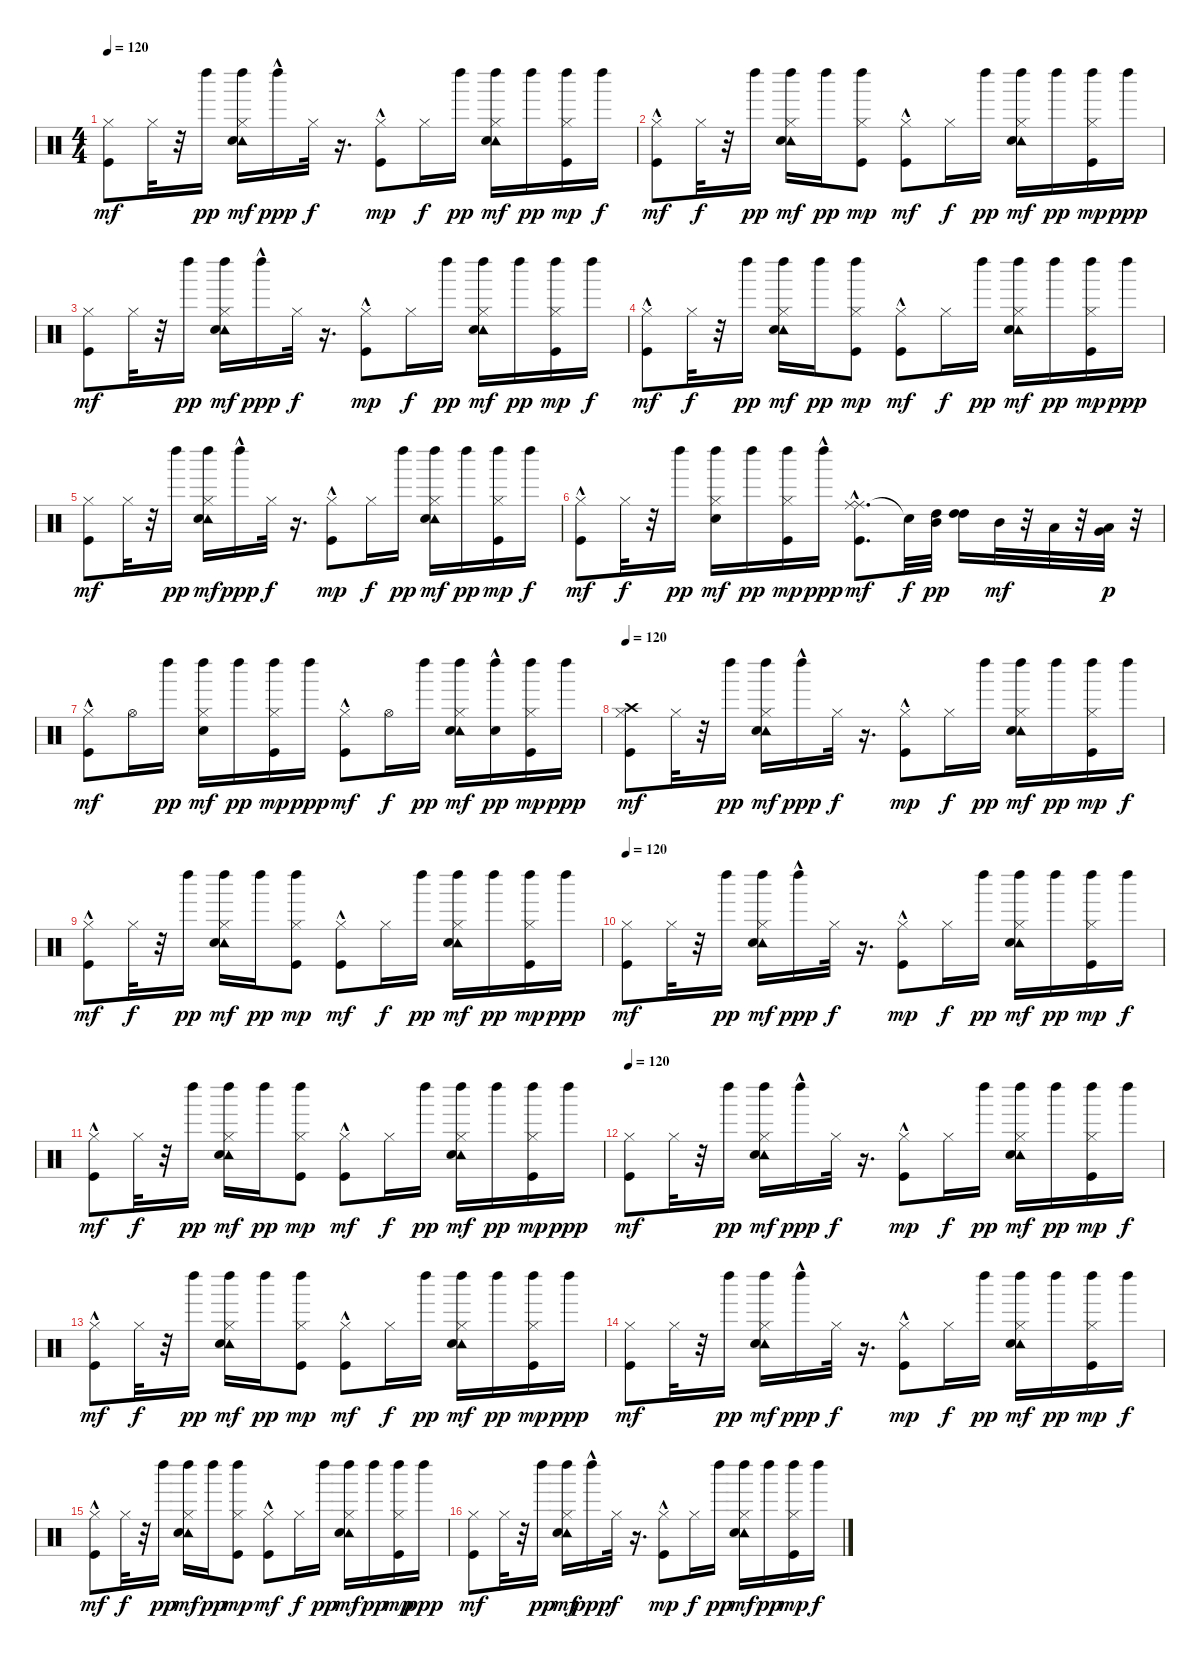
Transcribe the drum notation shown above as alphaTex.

\track "" {instrument percussion}
\staff {score}
\articulation defaults
\ts (4 4)
\tempo 120
\clef neutral
\ks c
("Kick (hit)" "Hi-Hat (closed)").8{dy mf} "Hi-Hat (closed)".32 r.32 "Left Maraca (hit)".16{dy pp} ("Left Maraca (hit)" "Tambourine (hit)" "Electric Snare (hit)" "Hi-Hat (closed)").16{dy mf} "Left Maraca (hit)"{hac}.16{dy ppp} "Hi-Hat (closed)".32{dy f} r.16{d} ("Hi-Hat (closed)" "Kick (hit)"{hac}).8{dy mp} "Hi-Hat (closed)".16{dy f} "Left Maraca (hit)".16{dy pp} ("Left Maraca (hit)" "Tambourine (hit)" "Electric Snare (hit)" "Hi-Hat (closed)").16{dy mf} "Left Maraca (hit)".16{dy pp} ("Left Maraca (hit)" "Kick (hit)" "Hi-Hat (closed)").16{dy mp} "Left Maraca (hit)".16{dy f} |
("Kick (hit)"{hac} "Hi-Hat (closed)").8{dy mf} "Hi-Hat (closed)".32{dy f} r.32 "Left Maraca (hit)".16{dy pp} ("Left Maraca (hit)" "Tambourine (hit)" "Hi-Hat (closed)" "Electric Snare (hit)").16{dy mf} "Left Maraca (hit)".16{dy pp} ("Left Maraca (hit)" "Hi-Hat (closed)" "Kick (hit)").8{dy mp} ("Kick (hit)"{hac} "Hi-Hat (closed)").8{dy mf} "Hi-Hat (closed)".16{dy f} "Left Maraca (hit)".16{dy pp} ("Left Maraca (hit)" "Tambourine (hit)" "Electric Snare (hit)" "Hi-Hat (closed)").16{dy mf} "Left Maraca (hit)".16{dy pp} ("Left Maraca (hit)" "Kick (hit)" "Hi-Hat (closed)").16{dy mp} "Left Maraca (hit)".16{dy ppp} |
("Kick (hit)" "Hi-Hat (closed)").8{dy mf} "Hi-Hat (closed)".32 r.32 "Left Maraca (hit)".16{dy pp} ("Left Maraca (hit)" "Tambourine (hit)" "Electric Snare (hit)" "Hi-Hat (closed)").16{dy mf} "Left Maraca (hit)"{hac}.16{dy ppp} "Hi-Hat (closed)".32{dy f} r.16{d} ("Hi-Hat (closed)" "Kick (hit)"{hac}).8{dy mp} "Hi-Hat (closed)".16{dy f} "Left Maraca (hit)".16{dy pp} ("Left Maraca (hit)" "Tambourine (hit)" "Electric Snare (hit)" "Hi-Hat (closed)").16{dy mf} "Left Maraca (hit)".16{dy pp} ("Left Maraca (hit)" "Kick (hit)" "Hi-Hat (closed)").16{dy mp} "Left Maraca (hit)".16{dy f} |
("Kick (hit)"{hac} "Hi-Hat (closed)").8{dy mf} "Hi-Hat (closed)".32{dy f} r.32 "Left Maraca (hit)".16{dy pp} ("Left Maraca (hit)" "Tambourine (hit)" "Hi-Hat (closed)" "Electric Snare (hit)").16{dy mf} "Left Maraca (hit)".16{dy pp} ("Left Maraca (hit)" "Hi-Hat (closed)" "Kick (hit)").8{dy mp} ("Kick (hit)"{hac} "Hi-Hat (closed)").8{dy mf} "Hi-Hat (closed)".16{dy f} "Left Maraca (hit)".16{dy pp} ("Left Maraca (hit)" "Tambourine (hit)" "Electric Snare (hit)" "Hi-Hat (closed)").16{dy mf} "Left Maraca (hit)".16{dy pp} ("Left Maraca (hit)" "Kick (hit)" "Hi-Hat (closed)").16{dy mp} "Left Maraca (hit)".16{dy ppp} |
("Kick (hit)" "Hi-Hat (closed)").8{dy mf} "Hi-Hat (closed)".32 r.32 "Left Maraca (hit)".16{dy pp} ("Left Maraca (hit)" "Tambourine (hit)" "Electric Snare (hit)" "Hi-Hat (closed)").16{dy mf} "Left Maraca (hit)"{hac}.16{dy ppp} "Hi-Hat (closed)".32{dy f} r.16{d} ("Hi-Hat (closed)" "Kick (hit)"{hac}).8{dy mp} "Hi-Hat (closed)".16{dy f} "Left Maraca (hit)".16{dy pp} ("Left Maraca (hit)" "Tambourine (hit)" "Electric Snare (hit)" "Hi-Hat (closed)").16{dy mf} "Left Maraca (hit)".16{dy pp} ("Left Maraca (hit)" "Kick (hit)" "Hi-Hat (closed)").16{dy mp} "Left Maraca (hit)".16{dy f} |
("Kick (hit)"{hac} "Hi-Hat (closed)").8{dy mf} "Hi-Hat (closed)".32{dy f} r.32 "Left Maraca (hit)".16{dy pp} ("Left Maraca (hit)" "Hi-Hat (closed)" "Electric Snare (hit)").16{dy mf} "Left Maraca (hit)".16{dy pp} ("Left Maraca (hit)" "Hi-Hat (closed)" "Kick (hit)").16{dy mp} "Left Maraca (hit)"{hac}.16{dy ppp} ("Ride (middle)" "Kick (hit)"{hac} "Ride (middle)").8{d dy mf} "Snare (hit)"{t}.32{dy f} ("High Tom (hit)" "Mid Tom (hit)").32{dy pp} ("High Tom (hit)" "High Tom (hit)").16 "Mid Tom (hit)".32{dy mf} r.32 "Low Tom (hit)".32 r.32 ("Low Tom (hit)" "Very Low Tom (hit)").32{dy p} r.32 |
("Kick (hit)"{hac} "Hi-Hat (closed)").8{dy mf} "Hi-Hat (open)".16 "Left Maraca (hit)".16{dy pp} ("Left Maraca (hit)" "Hi-Hat (closed)" "Electric Snare (hit)").16{dy mf} "Left Maraca (hit)".16{dy pp} ("Left Maraca (hit)" "Hi-Hat (closed)" "Kick (hit)").16{dy mp} "Left Maraca (hit)".16{dy ppp} ("Kick (hit)"{hac} "Hi-Hat (closed)").8{dy mf} "Hi-Hat (open)".16{dy f} "Left Maraca (hit)".16{dy pp} ("Left Maraca (hit)" "Tambourine (hit)" "Electric Snare (hit)" "Hi-Hat (closed)").16{dy mf} ("Electric Snare (hit)"{hac} "Left Maraca (hit)").16{dy pp} ("Left Maraca (hit)" "Kick (hit)" "Hi-Hat (closed)").16{dy mp} "Left Maraca (hit)".16{dy ppp} |
\tempo 120
("Crash high (hit)" "Kick (hit)" "Hi-Hat (closed)").8{dy mf} "Hi-Hat (closed)".32 r.32 "Left Maraca (hit)".16{dy pp} ("Left Maraca (hit)" "Tambourine (hit)" "Electric Snare (hit)" "Hi-Hat (closed)").16{dy mf} "Left Maraca (hit)"{hac}.16{dy ppp} "Hi-Hat (closed)".32{dy f} r.16{d} ("Hi-Hat (closed)" "Kick (hit)"{hac}).8{dy mp} "Hi-Hat (closed)".16{dy f} "Left Maraca (hit)".16{dy pp} ("Left Maraca (hit)" "Tambourine (hit)" "Electric Snare (hit)" "Hi-Hat (closed)").16{dy mf} "Left Maraca (hit)".16{dy pp} ("Left Maraca (hit)" "Kick (hit)" "Hi-Hat (closed)").16{dy mp} "Left Maraca (hit)".16{dy f} |
("Kick (hit)"{hac} "Hi-Hat (closed)").8{dy mf} "Hi-Hat (closed)".32{dy f} r.32 "Left Maraca (hit)".16{dy pp} ("Left Maraca (hit)" "Tambourine (hit)" "Hi-Hat (closed)" "Electric Snare (hit)").16{dy mf} "Left Maraca (hit)".16{dy pp} ("Left Maraca (hit)" "Hi-Hat (closed)" "Kick (hit)").8{dy mp} ("Kick (hit)"{hac} "Hi-Hat (closed)").8{dy mf} "Hi-Hat (closed)".16{dy f} "Left Maraca (hit)".16{dy pp} ("Left Maraca (hit)" "Tambourine (hit)" "Electric Snare (hit)" "Hi-Hat (closed)").16{dy mf} "Left Maraca (hit)".16{dy pp} ("Left Maraca (hit)" "Kick (hit)" "Hi-Hat (closed)").16{dy mp} "Left Maraca (hit)".16{dy ppp} |
\tempo 120
("Kick (hit)" "Hi-Hat (closed)").8{dy mf} "Hi-Hat (closed)".32 r.32 "Left Maraca (hit)".16{dy pp} ("Left Maraca (hit)" "Tambourine (hit)" "Electric Snare (hit)" "Hi-Hat (closed)").16{dy mf} "Left Maraca (hit)"{hac}.16{dy ppp} "Hi-Hat (closed)".32{dy f} r.16{d} ("Hi-Hat (closed)" "Kick (hit)"{hac}).8{dy mp} "Hi-Hat (closed)".16{dy f} "Left Maraca (hit)".16{dy pp} ("Left Maraca (hit)" "Tambourine (hit)" "Electric Snare (hit)" "Hi-Hat (closed)").16{dy mf} "Left Maraca (hit)".16{dy pp} ("Left Maraca (hit)" "Kick (hit)" "Hi-Hat (closed)").16{dy mp} "Left Maraca (hit)".16{dy f} |
("Kick (hit)"{hac} "Hi-Hat (closed)").8{dy mf} "Hi-Hat (closed)".32{dy f} r.32 "Left Maraca (hit)".16{dy pp} ("Left Maraca (hit)" "Tambourine (hit)" "Hi-Hat (closed)" "Electric Snare (hit)").16{dy mf} "Left Maraca (hit)".16{dy pp} ("Left Maraca (hit)" "Hi-Hat (closed)" "Kick (hit)").8{dy mp} ("Kick (hit)"{hac} "Hi-Hat (closed)").8{dy mf} "Hi-Hat (closed)".16{dy f} "Left Maraca (hit)".16{dy pp} ("Left Maraca (hit)" "Tambourine (hit)" "Electric Snare (hit)" "Hi-Hat (closed)").16{dy mf} "Left Maraca (hit)".16{dy pp} ("Left Maraca (hit)" "Kick (hit)" "Hi-Hat (closed)").16{dy mp} "Left Maraca (hit)".16{dy ppp} |
\tempo 120
("Kick (hit)" "Hi-Hat (closed)").8{dy mf} "Hi-Hat (closed)".32 r.32 "Left Maraca (hit)".16{dy pp} ("Left Maraca (hit)" "Tambourine (hit)" "Electric Snare (hit)" "Hi-Hat (closed)").16{dy mf} "Left Maraca (hit)"{hac}.16{dy ppp} "Hi-Hat (closed)".32{dy f} r.16{d} ("Hi-Hat (closed)" "Kick (hit)"{hac}).8{dy mp} "Hi-Hat (closed)".16{dy f} "Left Maraca (hit)".16{dy pp} ("Left Maraca (hit)" "Tambourine (hit)" "Electric Snare (hit)" "Hi-Hat (closed)").16{dy mf} "Left Maraca (hit)".16{dy pp} ("Left Maraca (hit)" "Kick (hit)" "Hi-Hat (closed)").16{dy mp} "Left Maraca (hit)".16{dy f} |
("Kick (hit)"{hac} "Hi-Hat (closed)").8{dy mf} "Hi-Hat (closed)".32{dy f} r.32 "Left Maraca (hit)".16{dy pp} ("Left Maraca (hit)" "Tambourine (hit)" "Hi-Hat (closed)" "Electric Snare (hit)").16{dy mf} "Left Maraca (hit)".16{dy pp} ("Left Maraca (hit)" "Hi-Hat (closed)" "Kick (hit)").8{dy mp} ("Kick (hit)"{hac} "Hi-Hat (closed)").8{dy mf} "Hi-Hat (closed)".16{dy f} "Left Maraca (hit)".16{dy pp} ("Left Maraca (hit)" "Tambourine (hit)" "Electric Snare (hit)" "Hi-Hat (closed)").16{dy mf} "Left Maraca (hit)".16{dy pp} ("Left Maraca (hit)" "Kick (hit)" "Hi-Hat (closed)").16{dy mp} "Left Maraca (hit)".16{dy ppp} |
("Kick (hit)" "Hi-Hat (closed)").8{dy mf} "Hi-Hat (closed)".32 r.32 "Left Maraca (hit)".16{dy pp} ("Left Maraca (hit)" "Tambourine (hit)" "Electric Snare (hit)" "Hi-Hat (closed)").16{dy mf} "Left Maraca (hit)"{hac}.16{dy ppp} "Hi-Hat (closed)".32{dy f} r.16{d} ("Hi-Hat (closed)" "Kick (hit)"{hac}).8{dy mp} "Hi-Hat (closed)".16{dy f} "Left Maraca (hit)".16{dy pp} ("Left Maraca (hit)" "Tambourine (hit)" "Electric Snare (hit)" "Hi-Hat (closed)").16{dy mf} "Left Maraca (hit)".16{dy pp} ("Left Maraca (hit)" "Kick (hit)" "Hi-Hat (closed)").16{dy mp} "Left Maraca (hit)".16{dy f} |
("Kick (hit)"{hac} "Hi-Hat (closed)").8{dy mf} "Hi-Hat (closed)".32{dy f} r.32 "Left Maraca (hit)".16{dy pp} ("Left Maraca (hit)" "Tambourine (hit)" "Hi-Hat (closed)" "Electric Snare (hit)").16{dy mf} "Left Maraca (hit)".16{dy pp} ("Left Maraca (hit)" "Hi-Hat (closed)" "Kick (hit)").8{dy mp} ("Kick (hit)"{hac} "Hi-Hat (closed)").8{dy mf} "Hi-Hat (closed)".16{dy f} "Left Maraca (hit)".16{dy pp} ("Left Maraca (hit)" "Tambourine (hit)" "Electric Snare (hit)" "Hi-Hat (closed)").16{dy mf} "Left Maraca (hit)".16{dy pp} ("Left Maraca (hit)" "Kick (hit)" "Hi-Hat (closed)").16{dy mp} "Left Maraca (hit)".16{dy ppp} |
("Kick (hit)" "Hi-Hat (closed)").8{dy mf} "Hi-Hat (closed)".32 r.32 "Left Maraca (hit)".16{dy pp} ("Left Maraca (hit)" "Tambourine (hit)" "Electric Snare (hit)" "Hi-Hat (closed)").16{dy mf} "Left Maraca (hit)"{hac}.16{dy ppp} "Hi-Hat (closed)".32{dy f} r.16{d} ("Hi-Hat (closed)" "Kick (hit)"{hac}).8{dy mp} "Hi-Hat (closed)".16{dy f} "Left Maraca (hit)".16{dy pp} ("Left Maraca (hit)" "Tambourine (hit)" "Electric Snare (hit)" "Hi-Hat (closed)").16{dy mf} "Left Maraca (hit)".16{dy pp} ("Left Maraca (hit)" "Kick (hit)" "Hi-Hat (closed)").16{dy mp} "Left Maraca (hit)".16{dy f}
